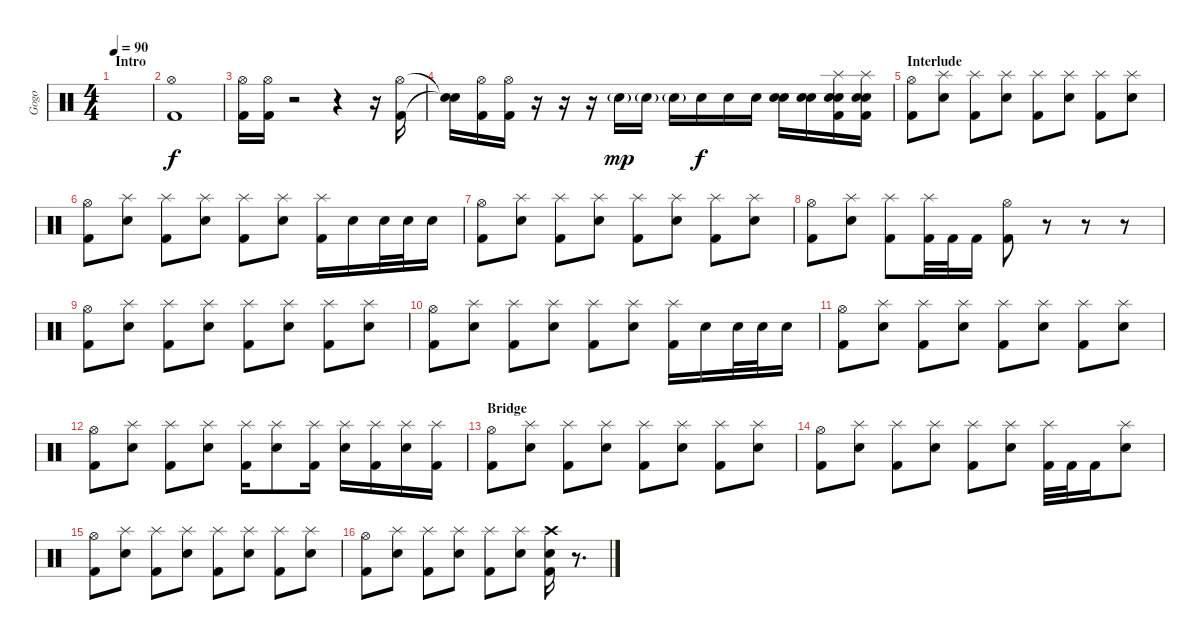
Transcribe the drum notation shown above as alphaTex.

\track ("Gogo" "Gogo") {instrument percussion}
\staff {score}
\articulation defaults
\ts (4 4)
\section ("" "Intro")
\tempo 90
\clef neutral
\ks c
|
("Hi-Hat (open)" "Kick (hit) 2").1 |
("Hi-Hat (open)" "Kick (hit) 2").16 ("Hi-Hat (open)" "Kick (hit) 2").16 r.2 r.4 r.16 ("Hi-Hat (open)" "Kick (hit) 2").16 |
("Snare (hit)"{t} "Snare (hit)"{t}).16 ("Hi-Hat (open)" "Kick (hit) 2").16 ("Hi-Hat (open)" "Kick (hit) 2").16 r.16 r.16 r.16 "Electric Snare (hit)"{g}.16{dy mp} "Electric Snare (hit)"{g}.16 "Electric Snare (hit)"{g}.16 "Electric Snare (hit)".16{dy f} "Electric Snare (hit)".16 "Electric Snare (hit)".16 ("Electric Snare (hit)" "Electric Snare (hit)").16 ("Electric Snare (hit)" "Electric Snare (hit)").16 ("Splash (hit)" "Electric Snare (hit)" "Electric Snare (hit)" "Kick (hit) 2").16 ("Splash (hit)" "Electric Snare (hit)" "Electric Snare (hit)" "Kick (hit) 2").16 |
\section ("" "Interlude")
("Hi-Hat (open)" "Kick (hit) 2").8 ("Splash (hit)" "Electric Snare (hit)").8 ("Splash (hit)" "Kick (hit) 2").8 ("Splash (hit)" "Electric Snare (hit)").8 ("Splash (hit)" "Kick (hit) 2").8 ("Splash (hit)" "Electric Snare (hit)").8 ("Splash (hit)" "Kick (hit) 2").8 ("Splash (hit)" "Electric Snare (hit)").8 |
("Hi-Hat (open)" "Kick (hit) 2").8 ("Splash (hit)" "Electric Snare (hit)").8 ("Splash (hit)" "Kick (hit) 2").8 ("Splash (hit)" "Electric Snare (hit)").8 ("Splash (hit)" "Kick (hit) 2").8 ("Splash (hit)" "Electric Snare (hit)").8 ("Splash (hit)" "Kick (hit) 2").16 "Electric Snare (hit)".16 "Electric Snare (hit)".32 "Electric Snare (hit)".32 "Electric Snare (hit)".16 |
("Hi-Hat (open)" "Kick (hit) 2").8 ("Splash (hit)" "Electric Snare (hit)").8 ("Splash (hit)" "Kick (hit) 2").8 ("Splash (hit)" "Electric Snare (hit)").8 ("Splash (hit)" "Kick (hit) 2").8 ("Splash (hit)" "Electric Snare (hit)").8 ("Splash (hit)" "Kick (hit) 2").8 ("Splash (hit)" "Electric Snare (hit)").8 |
("Hi-Hat (open)" "Kick (hit) 2").8 ("Splash (hit)" "Electric Snare (hit)").8 ("Splash (hit)" "Kick (hit) 2").8 ("Splash (hit)" "Kick (hit) 2").32 "Kick (hit) 2".32 "Kick (hit) 2".16 ("Hi-Hat (open)" "Kick (hit) 2").8 r.8 r.8 r.8 |
("Hi-Hat (open)" "Kick (hit) 2").8 ("Splash (hit)" "Electric Snare (hit)").8 ("Splash (hit)" "Kick (hit) 2").8 ("Splash (hit)" "Electric Snare (hit)").8 ("Splash (hit)" "Kick (hit) 2").8 ("Splash (hit)" "Electric Snare (hit)").8 ("Splash (hit)" "Kick (hit) 2").8 ("Splash (hit)" "Electric Snare (hit)").8 |
("Hi-Hat (open)" "Kick (hit) 2").8 ("Splash (hit)" "Electric Snare (hit)").8 ("Splash (hit)" "Kick (hit) 2").8 ("Splash (hit)" "Electric Snare (hit)").8 ("Splash (hit)" "Kick (hit) 2").8 ("Splash (hit)" "Electric Snare (hit)").8 ("Splash (hit)" "Kick (hit) 2").16 "Electric Snare (hit)".16 "Electric Snare (hit)".32 "Electric Snare (hit)".32 "Electric Snare (hit)".16 |
("Hi-Hat (open)" "Kick (hit) 2").8 ("Splash (hit)" "Electric Snare (hit)").8 ("Splash (hit)" "Kick (hit) 2").8 ("Splash (hit)" "Electric Snare (hit)").8 ("Splash (hit)" "Kick (hit) 2").8 ("Splash (hit)" "Electric Snare (hit)").8 ("Splash (hit)" "Kick (hit) 2").8 ("Splash (hit)" "Electric Snare (hit)").8 |
("Hi-Hat (open)" "Kick (hit) 2").8 ("Splash (hit)" "Electric Snare (hit)").8 ("Splash (hit)" "Kick (hit) 2").8 ("Splash (hit)" "Electric Snare (hit)").8 ("Splash (hit)" "Kick (hit) 2").16 ("Splash (hit)" "Electric Snare (hit)").8 ("Splash (hit)" "Kick (hit) 2").16 ("Splash (hit)" "Electric Snare (hit)").16 ("Splash (hit)" "Kick (hit) 2").16 ("Splash (hit)" "Electric Snare (hit)").16 ("Splash (hit)" "Kick (hit) 2").16 |
\section ("" "Bridge")
("Hi-Hat (open)" "Kick (hit) 2").8 ("Splash (hit)" "Electric Snare (hit)").8 ("Splash (hit)" "Kick (hit) 2").8 ("Splash (hit)" "Electric Snare (hit)").8 ("Splash (hit)" "Kick (hit) 2").8 ("Splash (hit)" "Electric Snare (hit)").8 ("Splash (hit)" "Kick (hit) 2").8 ("Splash (hit)" "Electric Snare (hit)").8 |
("Hi-Hat (open)" "Kick (hit) 2").8 ("Splash (hit)" "Electric Snare (hit)").8 ("Splash (hit)" "Kick (hit) 2").8 ("Splash (hit)" "Electric Snare (hit)").8 ("Splash (hit)" "Kick (hit) 2").8 ("Splash (hit)" "Electric Snare (hit)").8 ("Splash (hit)" "Kick (hit) 2").32 "Kick (hit) 2".32 "Kick (hit) 2".16 ("Splash (hit)" "Electric Snare (hit)").8 |
("Hi-Hat (open)" "Kick (hit) 2").8 ("Splash (hit)" "Electric Snare (hit)").8 ("Splash (hit)" "Kick (hit) 2").8 ("Splash (hit)" "Electric Snare (hit)").8 ("Splash (hit)" "Kick (hit) 2").8 ("Splash (hit)" "Electric Snare (hit)").8 ("Splash (hit)" "Kick (hit) 2").8 ("Splash (hit)" "Electric Snare (hit)").8 |
("Hi-Hat (open)" "Kick (hit) 2").8 ("Splash (hit)" "Electric Snare (hit)").8 ("Splash (hit)" "Kick (hit) 2").8 ("Splash (hit)" "Electric Snare (hit)").8 ("Splash (hit)" "Kick (hit) 2").8 ("Splash (hit)" "Electric Snare (hit)").8 ("Crash high (hit)" "Electric Snare (hit)" "Kick (hit) 2").16 r.8{d}
